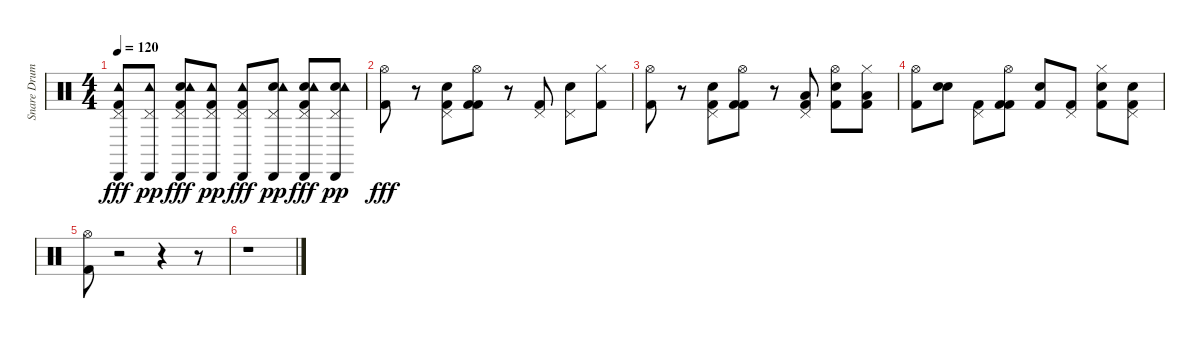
\track ("Snare Drum      " "Snare Drum") {instrument percussion}
\staff {score}
\articulation defaults
\ts (4 4)
\tempo 120
\clef neutral
\ks c
("Kick (hit) 2" "Pedal Hi-Hat (hit)" "Tambourine (hit)" "Cabasa (hit)").8{dy fff} ("Pedal Hi-Hat (hit)" "Tambourine (hit)" "Cabasa (hit)").8{dy pp} ("Snare (hit) 2" "Kick (hit) 2" "Pedal Hi-Hat (hit)" "Tambourine (hit)" "Cabasa (hit)").8{dy fff} ("Kick (hit) 2" "Pedal Hi-Hat (hit)" "Tambourine (hit)" "Cabasa (hit)").8{dy pp} ("Kick (hit) 2" "Pedal Hi-Hat (hit)" "Tambourine (hit)" "Cabasa (hit)").8{dy fff} ("Snare (hit) 2" "Pedal Hi-Hat (hit)" "Tambourine (hit)" "Cabasa (hit)").8{dy pp} ("Snare (hit) 2" "Kick (hit) 2" "Pedal Hi-Hat (hit)" "Tambourine (hit)" "Cabasa (hit)").8{dy fff} ("Snare (hit) 2" "Pedal Hi-Hat (hit)" "Tambourine (hit)" "Cabasa (hit)").8{dy pp} |
("Kick (hit) 2" "Hi-Hat (open)").8{dy fff} r.8 ("Snare (hit) 2" "Kick (hit) 2" "Pedal Hi-Hat (hit)").8 ("Kick (hit) 2" "Hi-Hat (open)" "Kick (hit) 2").8 r.8 ("Kick (hit) 2" "Pedal Hi-Hat (hit)").8 ("Snare (hit) 2" "Pedal Hi-Hat (hit)").8 ("Kick (hit) 2" "Hi-Hat (closed)").8 |
("Kick (hit) 2" "Hi-Hat (open)").8 r.8 ("Snare (hit) 2" "Kick (hit) 2" "Pedal Hi-Hat (hit)").8 ("Kick (hit) 2" "Kick (hit) 2" "Hi-Hat (open)").8 r.8 ("Kick (hit) 2" "Pedal Hi-Hat (hit)" "Low Floor Tom (hit)").8 ("Snare (hit) 2" "Kick (hit) 2" "Hi-Hat (open)").8 ("Kick (hit) 2" "Hi-Hat (closed)" "Low Floor Tom (hit)").8 |
("Kick (hit) 2" "Hi-Hat (open)").8 ("Snare (hit) 2" "Snare (hit) 2").8 ("Kick (hit) 2" "Pedal Hi-Hat (hit)").8 ("Kick (hit) 2" "Hi-Hat (open)" "Kick (hit) 2").8 ("Snare (hit) 2" "Kick (hit) 2").8 ("Kick (hit) 2" "Pedal Hi-Hat (hit)").8 ("Snare (hit) 2" "Kick (hit) 2" "Hi-Hat (closed)").8 ("Snare (hit) 2" "Kick (hit) 2" "Pedal Hi-Hat (hit)").8 |
("Kick (hit) 2" "Hi-Hat (open)").8 r.2 r.4 r.8 |
r.1
